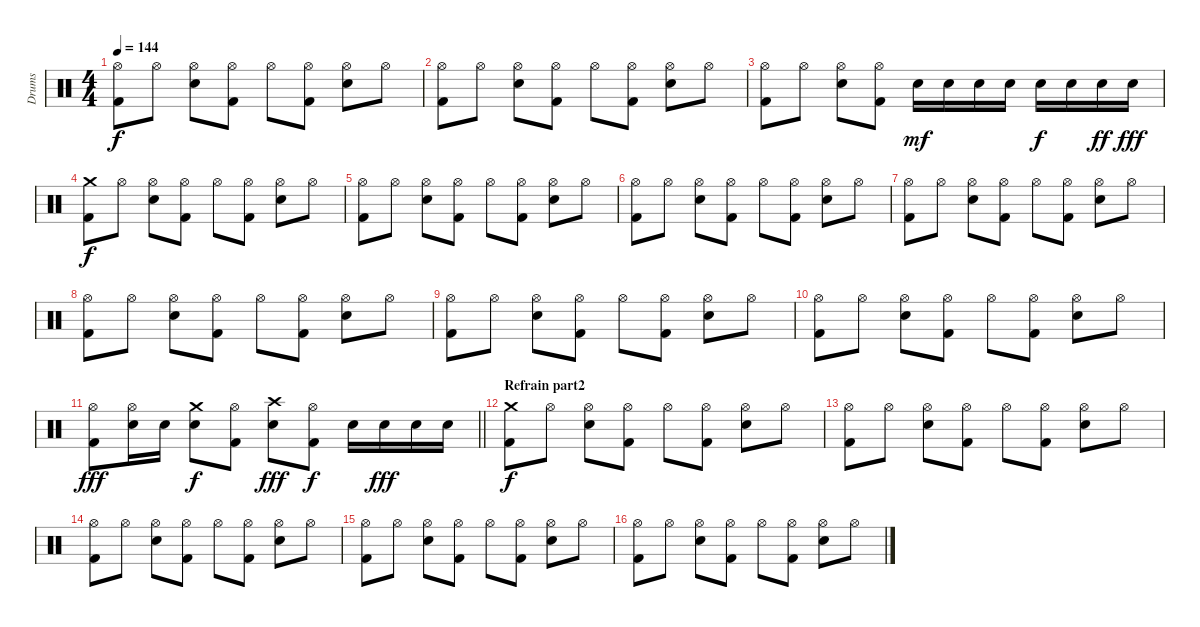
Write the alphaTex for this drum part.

\track ("Drums" "Drums") {instrument percussion}
\staff {score}
\articulation defaults
\ts (4 4)
\tempo 144
\clef neutral
\ks c
("Hi-Hat (open)" "Kick (hit) 2").8{dy f} "Hi-Hat (open)".8 ("Hi-Hat (open)" "Electric Snare (hit)").8 ("Hi-Hat (open)" "Kick (hit) 2").8 "Hi-Hat (open)".8 ("Hi-Hat (open)" "Kick (hit) 2").8 ("Hi-Hat (open)" "Electric Snare (hit)").8 "Hi-Hat (open)".8 |
("Hi-Hat (open)" "Kick (hit) 2").8 "Hi-Hat (open)".8 ("Hi-Hat (open)" "Electric Snare (hit)").8 ("Hi-Hat (open)" "Kick (hit) 2").8 "Hi-Hat (open)".8 ("Hi-Hat (open)" "Kick (hit) 2").8 ("Hi-Hat (open)" "Electric Snare (hit)").8 "Hi-Hat (open)".8 |
("Hi-Hat (open)" "Kick (hit) 2").8 "Hi-Hat (open)".8 ("Hi-Hat (open)" "Electric Snare (hit)").8 ("Hi-Hat (open)" "Kick (hit) 2").8 "Electric Snare (hit)".16{dy mf} "Electric Snare (hit)".16 "Electric Snare (hit)".16 "Electric Snare (hit)".16 "Electric Snare (hit)".16{dy f} "Electric Snare (hit)".16 "Electric Snare (hit)".16{dy ff} "Electric Snare (hit)".16{dy fff} |
("Crash medium (hit)" "Kick (hit) 2").8{dy f} "Hi-Hat (open)".8 ("Hi-Hat (open)" "Electric Snare (hit)").8 ("Hi-Hat (open)" "Kick (hit) 2").8 "Hi-Hat (open)".8 ("Hi-Hat (open)" "Kick (hit) 2").8 ("Hi-Hat (open)" "Electric Snare (hit)").8 "Hi-Hat (open)".8 |
("Hi-Hat (open)" "Kick (hit) 2").8 "Hi-Hat (open)".8 ("Hi-Hat (open)" "Electric Snare (hit)").8 ("Hi-Hat (open)" "Kick (hit) 2").8 "Hi-Hat (open)".8 ("Hi-Hat (open)" "Kick (hit) 2").8 ("Hi-Hat (open)" "Electric Snare (hit)").8 "Hi-Hat (open)".8 |
("Hi-Hat (open)" "Kick (hit) 2").8 "Hi-Hat (open)".8 ("Hi-Hat (open)" "Electric Snare (hit)").8 ("Hi-Hat (open)" "Kick (hit) 2").8 "Hi-Hat (open)".8 ("Hi-Hat (open)" "Kick (hit) 2").8 ("Hi-Hat (open)" "Electric Snare (hit)").8 "Hi-Hat (open)".8 |
("Hi-Hat (open)" "Kick (hit) 2").8 "Hi-Hat (open)".8 ("Hi-Hat (open)" "Electric Snare (hit)").8 ("Hi-Hat (open)" "Kick (hit) 2").8 "Hi-Hat (open)".8 ("Hi-Hat (open)" "Kick (hit) 2").8 ("Hi-Hat (open)" "Electric Snare (hit)").8 "Hi-Hat (open)".8 |
("Hi-Hat (open)" "Kick (hit) 2").8 "Hi-Hat (open)".8 ("Hi-Hat (open)" "Electric Snare (hit)").8 ("Hi-Hat (open)" "Kick (hit) 2").8 "Hi-Hat (open)".8 ("Hi-Hat (open)" "Kick (hit) 2").8 ("Hi-Hat (open)" "Electric Snare (hit)").8 "Hi-Hat (open)".8 |
("Hi-Hat (open)" "Kick (hit) 2").8 "Hi-Hat (open)".8 ("Hi-Hat (open)" "Electric Snare (hit)").8 ("Hi-Hat (open)" "Kick (hit) 2").8 "Hi-Hat (open)".8 ("Hi-Hat (open)" "Kick (hit) 2").8 ("Hi-Hat (open)" "Electric Snare (hit)").8 "Hi-Hat (open)".8 |
("Hi-Hat (open)" "Kick (hit) 2").8 "Hi-Hat (open)".8 ("Hi-Hat (open)" "Electric Snare (hit)").8 ("Hi-Hat (open)" "Kick (hit) 2").8 "Hi-Hat (open)".8 ("Hi-Hat (open)" "Kick (hit) 2").8 ("Hi-Hat (open)" "Electric Snare (hit)").8 "Hi-Hat (open)".8 |
\barLineRight lightlight
("Hi-Hat (open)" "Kick (hit) 2").8{dy fff} ("Hi-Hat (open)" "Electric Snare (hit)").16 "Electric Snare (hit)".16 ("Crash medium (hit)" "Electric Snare (hit)").8{dy f} ("Hi-Hat (open)" "Kick (hit) 2").8 ("Crash high (hit)" "Electric Snare (hit)").8{dy fff} ("Hi-Hat (open)" "Kick (hit) 2").8{dy f} "Electric Snare (hit)".16 "Electric Snare (hit)".16{dy fff} "Electric Snare (hit)".16 "Electric Snare (hit)".16 |
\section ("" "Refrain part2")
("Crash medium (hit)" "Kick (hit) 2").8{dy f} "Hi-Hat (open)".8 ("Hi-Hat (open)" "Electric Snare (hit)").8 ("Hi-Hat (open)" "Kick (hit) 2").8 "Hi-Hat (open)".8 ("Hi-Hat (open)" "Kick (hit) 2").8 ("Hi-Hat (open)" "Electric Snare (hit)").8 "Hi-Hat (open)".8 |
("Hi-Hat (open)" "Kick (hit) 2").8 "Hi-Hat (open)".8 ("Hi-Hat (open)" "Electric Snare (hit)").8 ("Hi-Hat (open)" "Kick (hit) 2").8 "Hi-Hat (open)".8 ("Hi-Hat (open)" "Kick (hit) 2").8 ("Hi-Hat (open)" "Electric Snare (hit)").8 "Hi-Hat (open)".8 |
("Hi-Hat (open)" "Kick (hit) 2").8 "Hi-Hat (open)".8 ("Hi-Hat (open)" "Electric Snare (hit)").8 ("Hi-Hat (open)" "Kick (hit) 2").8 "Hi-Hat (open)".8 ("Hi-Hat (open)" "Kick (hit) 2").8 ("Hi-Hat (open)" "Electric Snare (hit)").8 "Hi-Hat (open)".8 |
("Hi-Hat (open)" "Kick (hit) 2").8 "Hi-Hat (open)".8 ("Hi-Hat (open)" "Electric Snare (hit)").8 ("Hi-Hat (open)" "Kick (hit) 2").8 "Hi-Hat (open)".8 ("Hi-Hat (open)" "Kick (hit) 2").8 ("Hi-Hat (open)" "Electric Snare (hit)").8 "Hi-Hat (open)".8 |
("Hi-Hat (open)" "Kick (hit) 2").8 "Hi-Hat (open)".8 ("Hi-Hat (open)" "Electric Snare (hit)").8 ("Hi-Hat (open)" "Kick (hit) 2").8 "Hi-Hat (open)".8 ("Hi-Hat (open)" "Kick (hit) 2").8 ("Hi-Hat (open)" "Electric Snare (hit)").8 "Hi-Hat (open)".8
